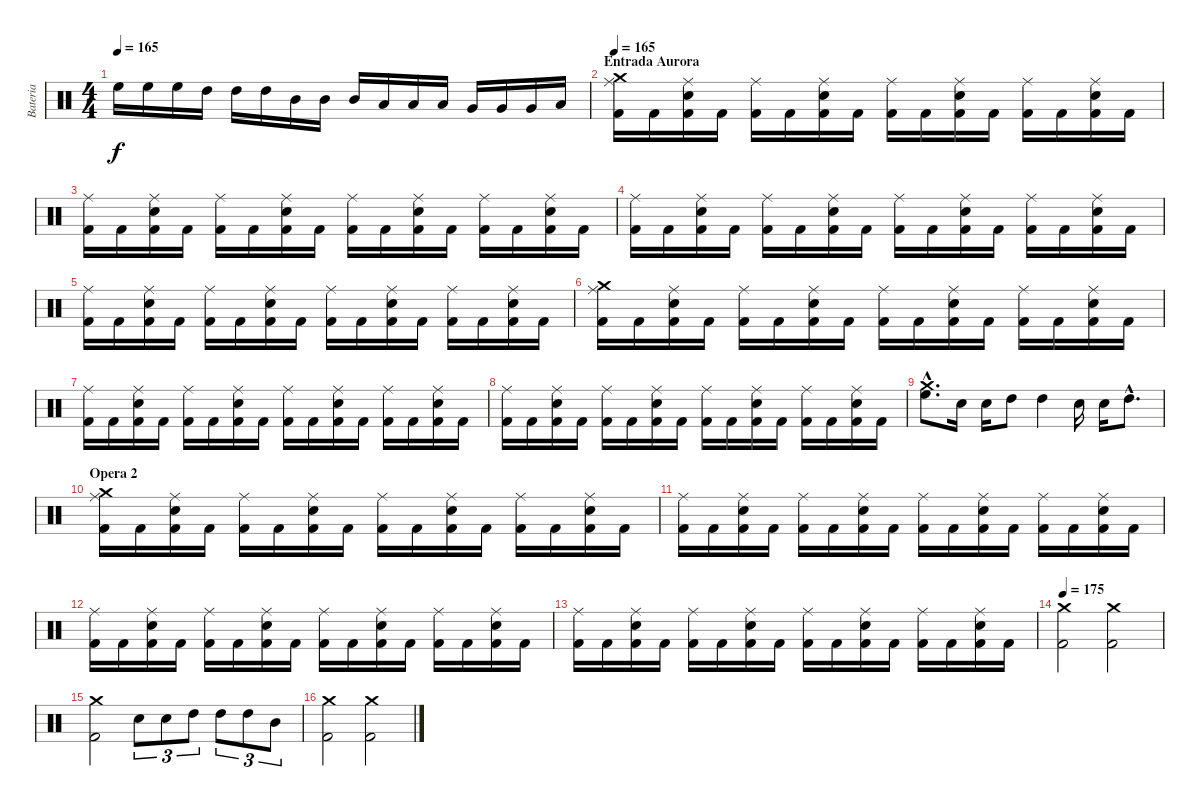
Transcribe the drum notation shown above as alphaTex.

\track ("Bateria" "Bateria") {instrument percussion}
\staff {score}
\articulation defaults
\ts (4 4)
\tempo 165
\clef neutral
\ks c "High Floor Tom (hit)".16{dy f} "High Floor Tom (hit)".16 "High Floor Tom (hit)".16 "High Tom (hit)".16 "High Tom (hit)".16 "High Tom (hit)".16 "Mid Tom (hit)".16 "Mid Tom (hit)".16 "Mid Tom (hit)".16 "Low Tom (hit)".16 "Low Tom (hit)".16 "Low Tom (hit)".16 "Very Low Tom (hit)".16 "Very Low Tom (hit)".16 "Very Low Tom (hit)".16 "Low Floor Tom (hit)".16
|
\section ("" "Entrada Aurora")
\tempo 165
("Crash medium (hit)" "Ride (middle)" "Kick (hit) 2").16 "Kick (hit) 2".16 ("Snare (hit) 2" "Ride (middle)" "Kick (hit) 2").16 "Kick (hit) 2".16 ("Ride (middle)" "Kick (hit) 2").16 "Kick (hit) 2".16 ("Snare (hit) 2" "Ride (middle)" "Kick (hit) 2").16 "Kick (hit) 2".16 ("Ride (middle)" "Kick (hit) 2").16 "Kick (hit) 2".16 ("Snare (hit) 2" "Ride (middle)" "Kick (hit) 2").16 "Kick (hit) 2".16 ("Ride (middle)" "Kick (hit) 2").16 "Kick (hit) 2".16 ("Snare (hit) 2" "Ride (middle)" "Kick (hit) 2").16 "Kick (hit) 2".16 |
("Ride (middle)" "Kick (hit) 2").16 "Kick (hit) 2".16 ("Snare (hit) 2" "Ride (middle)" "Kick (hit) 2").16 "Kick (hit) 2".16 ("Ride (middle)" "Kick (hit) 2").16 "Kick (hit) 2".16 ("Snare (hit) 2" "Ride (middle)" "Kick (hit) 2").16 "Kick (hit) 2".16 ("Ride (middle)" "Kick (hit) 2").16 "Kick (hit) 2".16 ("Snare (hit) 2" "Ride (middle)" "Kick (hit) 2").16 "Kick (hit) 2".16 ("Ride (middle)" "Kick (hit) 2").16 "Kick (hit) 2".16 ("Snare (hit) 2" "Ride (middle)" "Kick (hit) 2").16 "Kick (hit) 2".16 |
("Ride (middle)" "Kick (hit) 2").16 "Kick (hit) 2".16 ("Snare (hit) 2" "Ride (middle)" "Kick (hit) 2").16 "Kick (hit) 2".16 ("Ride (middle)" "Kick (hit) 2").16 "Kick (hit) 2".16 ("Snare (hit) 2" "Ride (middle)" "Kick (hit) 2").16 "Kick (hit) 2".16 ("Ride (middle)" "Kick (hit) 2").16 "Kick (hit) 2".16 ("Snare (hit) 2" "Ride (middle)" "Kick (hit) 2").16 "Kick (hit) 2".16 ("Ride (middle)" "Kick (hit) 2").16 "Kick (hit) 2".16 ("Snare (hit) 2" "Ride (middle)" "Kick (hit) 2").16 "Kick (hit) 2".16 |
("Ride (middle)" "Kick (hit) 2").16 "Kick (hit) 2".16 ("Snare (hit) 2" "Ride (middle)" "Kick (hit) 2").16 "Kick (hit) 2".16 ("Ride (middle)" "Kick (hit) 2").16 "Kick (hit) 2".16 ("Snare (hit) 2" "Ride (middle)" "Kick (hit) 2").16 "Kick (hit) 2".16 ("Ride (middle)" "Kick (hit) 2").16 "Kick (hit) 2".16 ("Snare (hit) 2" "Ride (middle)" "Kick (hit) 2").16 "Kick (hit) 2".16 ("Ride (middle)" "Kick (hit) 2").16 "Kick (hit) 2".16 ("Snare (hit) 2" "Ride (middle)" "Kick (hit) 2").16 "Kick (hit) 2".16 |
("Crash medium (hit)" "Ride (middle)" "Kick (hit) 2").16 "Kick (hit) 2".16 ("Snare (hit) 2" "Ride (middle)" "Kick (hit) 2").16 "Kick (hit) 2".16 ("Ride (middle)" "Kick (hit) 2").16 "Kick (hit) 2".16 ("Snare (hit) 2" "Ride (middle)" "Kick (hit) 2").16 "Kick (hit) 2".16 ("Ride (middle)" "Kick (hit) 2").16 "Kick (hit) 2".16 ("Snare (hit) 2" "Ride (middle)" "Kick (hit) 2").16 "Kick (hit) 2".16 ("Ride (middle)" "Kick (hit) 2").16 "Kick (hit) 2".16 ("Snare (hit) 2" "Ride (middle)" "Kick (hit) 2").16 "Kick (hit) 2".16 |
("Ride (middle)" "Kick (hit) 2").16 "Kick (hit) 2".16 ("Snare (hit) 2" "Ride (middle)" "Kick (hit) 2").16 "Kick (hit) 2".16 ("Ride (middle)" "Kick (hit) 2").16 "Kick (hit) 2".16 ("Snare (hit) 2" "Ride (middle)" "Kick (hit) 2").16 "Kick (hit) 2".16 ("Ride (middle)" "Kick (hit) 2").16 "Kick (hit) 2".16 ("Snare (hit) 2" "Ride (middle)" "Kick (hit) 2").16 "Kick (hit) 2".16 ("Ride (middle)" "Kick (hit) 2").16 "Kick (hit) 2".16 ("Snare (hit) 2" "Ride (middle)" "Kick (hit) 2").16 "Kick (hit) 2".16 |
("Ride (middle)" "Kick (hit) 2").16 "Kick (hit) 2".16 ("Snare (hit) 2" "Ride (middle)" "Kick (hit) 2").16 "Kick (hit) 2".16 ("Ride (middle)" "Kick (hit) 2").16 "Kick (hit) 2".16 ("Snare (hit) 2" "Ride (middle)" "Kick (hit) 2").16 "Kick (hit) 2".16 ("Ride (middle)" "Kick (hit) 2").16 "Kick (hit) 2".16 ("Snare (hit) 2" "Ride (middle)" "Kick (hit) 2").16 "Kick (hit) 2".16 ("Ride (middle)" "Kick (hit) 2").16 "Kick (hit) 2".16 ("Snare (hit) 2" "Ride (middle)" "Kick (hit) 2").16 "Kick (hit) 2".16 |
("High Floor Tom (hit)"{hac} "Crash medium (hit)"{hac}).8{d} "Snare (hit) 2".16 "Snare (hit) 2".16 "High Tom (hit)".8 "High Tom (hit)".4 "Snare (hit) 2".16 "Snare (hit) 2".16 "High Tom (hit)"{hac}.8{d} |
\section ("" "Opera 2")
("Crash medium (hit)" "Ride (middle)" "Kick (hit) 2").16 "Kick (hit) 2".16 ("Snare (hit) 2" "Ride (middle)" "Kick (hit) 2").16 "Kick (hit) 2".16 ("Ride (middle)" "Kick (hit) 2").16 "Kick (hit) 2".16 ("Snare (hit) 2" "Ride (middle)" "Kick (hit) 2").16 "Kick (hit) 2".16 ("Ride (middle)" "Kick (hit) 2").16 "Kick (hit) 2".16 ("Snare (hit) 2" "Ride (middle)" "Kick (hit) 2").16 "Kick (hit) 2".16 ("Ride (middle)" "Kick (hit) 2").16 "Kick (hit) 2".16 ("Snare (hit) 2" "Ride (middle)" "Kick (hit) 2").16 "Kick (hit) 2".16 |
("Ride (middle)" "Kick (hit) 2").16 "Kick (hit) 2".16 ("Snare (hit) 2" "Ride (middle)" "Kick (hit) 2").16 "Kick (hit) 2".16 ("Ride (middle)" "Kick (hit) 2").16 "Kick (hit) 2".16 ("Snare (hit) 2" "Ride (middle)" "Kick (hit) 2").16 "Kick (hit) 2".16 ("Ride (middle)" "Kick (hit) 2").16 "Kick (hit) 2".16 ("Snare (hit) 2" "Ride (middle)" "Kick (hit) 2").16 "Kick (hit) 2".16 ("Ride (middle)" "Kick (hit) 2").16 "Kick (hit) 2".16 ("Snare (hit) 2" "Ride (middle)" "Kick (hit) 2").16 "Kick (hit) 2".16 |
("Ride (middle)" "Kick (hit) 2").16 "Kick (hit) 2".16 ("Snare (hit) 2" "Ride (middle)" "Kick (hit) 2").16 "Kick (hit) 2".16 ("Ride (middle)" "Kick (hit) 2").16 "Kick (hit) 2".16 ("Snare (hit) 2" "Ride (middle)" "Kick (hit) 2").16 "Kick (hit) 2".16 ("Ride (middle)" "Kick (hit) 2").16 "Kick (hit) 2".16 ("Snare (hit) 2" "Ride (middle)" "Kick (hit) 2").16 "Kick (hit) 2".16 ("Ride (middle)" "Kick (hit) 2").16 "Kick (hit) 2".16 ("Snare (hit) 2" "Ride (middle)" "Kick (hit) 2").16 "Kick (hit) 2".16 |
("Ride (middle)" "Kick (hit) 2").16 "Kick (hit) 2".16 ("Snare (hit) 2" "Ride (middle)" "Kick (hit) 2").16 "Kick (hit) 2".16 ("Ride (middle)" "Kick (hit) 2").16 "Kick (hit) 2".16 ("Snare (hit) 2" "Ride (middle)" "Kick (hit) 2").16 "Kick (hit) 2".16 ("Ride (middle)" "Kick (hit) 2").16 "Kick (hit) 2".16 ("Snare (hit) 2" "Ride (middle)" "Kick (hit) 2").16 "Kick (hit) 2".16 ("Ride (middle)" "Kick (hit) 2").16 "Kick (hit) 2".16 ("Snare (hit) 2" "Ride (middle)" "Kick (hit) 2").16 "Kick (hit) 2".16 |
\tempo 175
("Kick (hit) 2" "Crash medium (hit)").2 ("Kick (hit) 2" "Crash medium (hit)").2 |
("Kick (hit) 2" "Crash medium (hit)").2 "Snare (hit) 2".8{tu (3 2)} "Snare (hit) 2".8{tu (3 2)} "High Tom (hit)".8{tu (3 2)} "High Tom (hit)".8{tu (3 2)} "High Tom (hit)".8{tu (3 2)} "Mid Tom (hit)".8{tu (3 2)} |
("Kick (hit) 2" "Crash medium (hit)").2 ("Kick (hit) 2" "Crash medium (hit)").2
